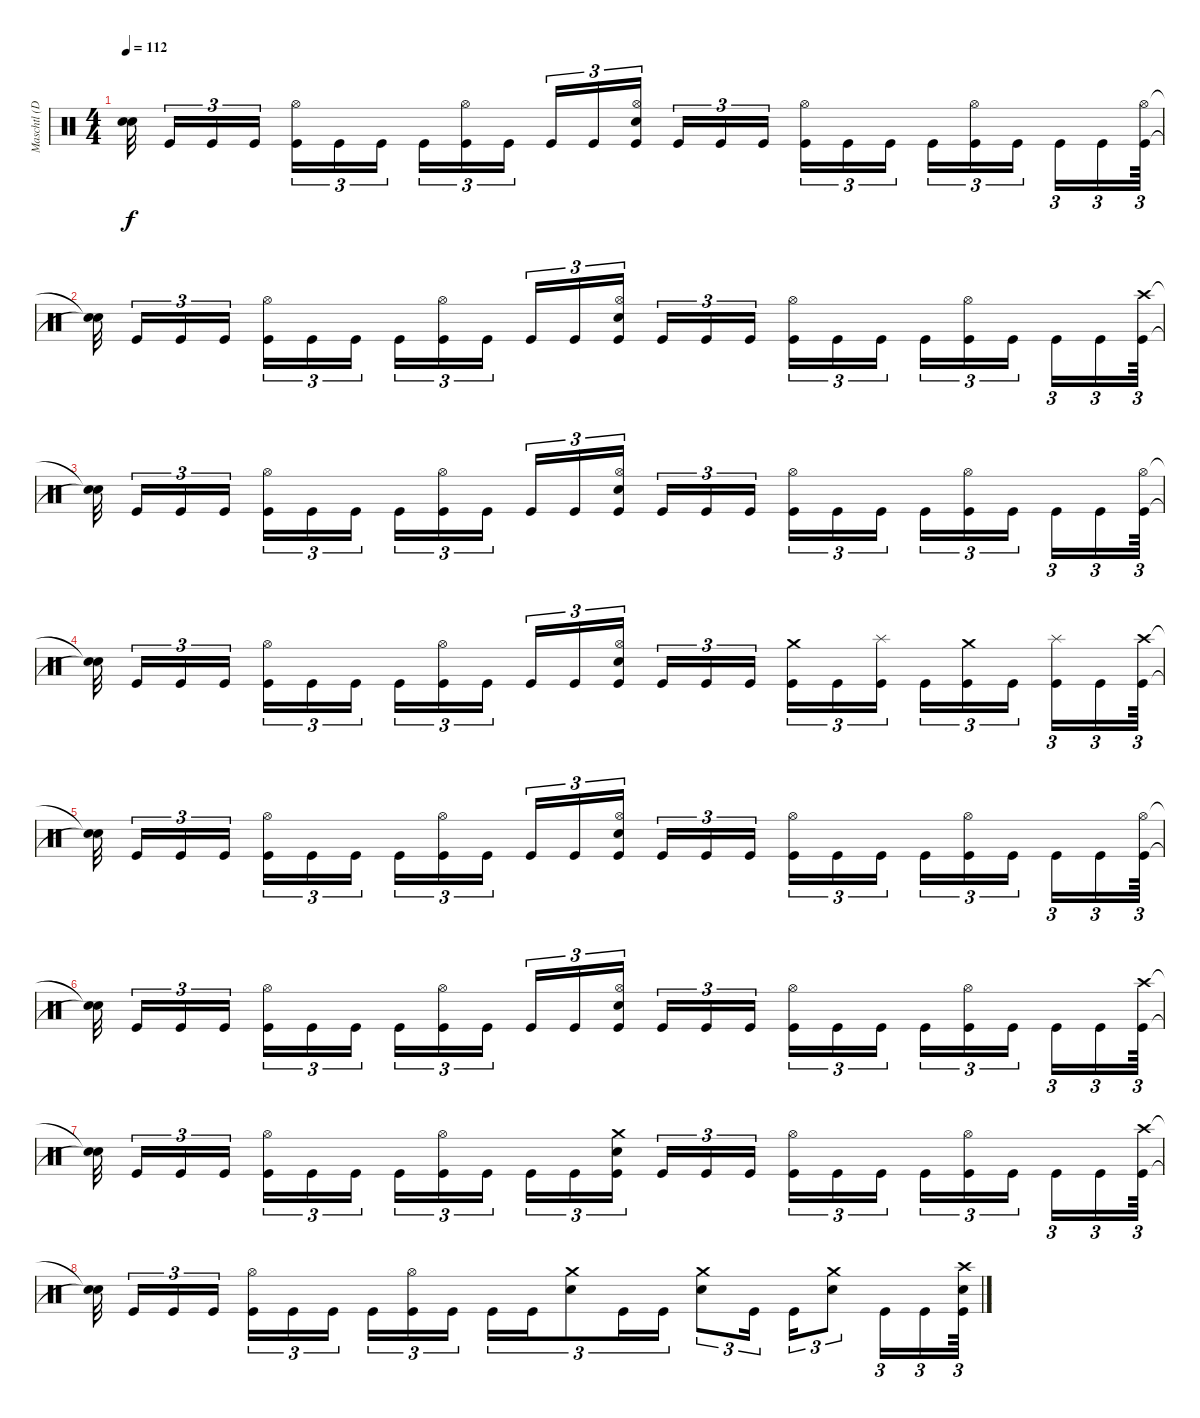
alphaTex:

\track ("Maschtl (Drums)" "Maschtl (D") {instrument percussion}
\staff {score}
\articulation defaults
\ts (4 4)
\tempo 112
\clef neutral
\ks c
("Snare (hit)"{t} "Snare (hit)"{t}).32{dy f} "Kick (hit)".16{tu (3 2)} "Kick (hit)".16{tu (3 2)} "Kick (hit)".16{tu (3 2)} ("Hi-Hat (open)" "Kick (hit)").16{tu (3 2)} "Kick (hit)".16{tu (3 2)} "Kick (hit)".16{tu (3 2)} "Kick (hit)".16{tu (3 2)} ("Hi-Hat (open)" "Kick (hit)").16{tu (3 2)} "Kick (hit)".16{tu (3 2)} "Kick (hit)".16{tu (3 2)} "Kick (hit)".16{tu (3 2)} ("Hi-Hat (open)" "Electric Snare (hit)" "Kick (hit)").16{tu (3 2)} "Kick (hit)".16{tu (3 2)} "Kick (hit)".16{tu (3 2)} "Kick (hit)".16{tu (3 2)} ("Hi-Hat (open)" "Kick (hit)").16{tu (3 2)} "Kick (hit)".16{tu (3 2)} "Kick (hit)".16{tu (3 2)} "Kick (hit)".16{tu (3 2)} ("Hi-Hat (open)" "Kick (hit)").16{tu (3 2)} "Kick (hit)".16{tu (3 2)} "Kick (hit)".16{tu (3 2)} "Kick (hit)".16{tu (3 2)} ("Hi-Hat (open)" "Kick (hit)").64{tu (3 2)} |
("Snare (hit)"{t} "Snare (hit)"{t}).32 "Kick (hit)".16{tu (3 2)} "Kick (hit)".16{tu (3 2)} "Kick (hit)".16{tu (3 2)} ("Hi-Hat (open)" "Kick (hit)").16{tu (3 2)} "Kick (hit)".16{tu (3 2)} "Kick (hit)".16{tu (3 2)} "Kick (hit)".16{tu (3 2)} ("Hi-Hat (open)" "Kick (hit)").16{tu (3 2)} "Kick (hit)".16{tu (3 2)} "Kick (hit)".16{tu (3 2)} "Kick (hit)".16{tu (3 2)} ("Hi-Hat (open)" "Electric Snare (hit)" "Kick (hit)").16{tu (3 2)} "Kick (hit)".16{tu (3 2)} "Kick (hit)".16{tu (3 2)} "Kick (hit)".16{tu (3 2)} ("Hi-Hat (open)" "Kick (hit)").16{tu (3 2)} "Kick (hit)".16{tu (3 2)} "Kick (hit)".16{tu (3 2)} "Kick (hit)".16{tu (3 2)} ("Hi-Hat (open)" "Kick (hit)").16{tu (3 2)} "Kick (hit)".16{tu (3 2)} "Kick (hit)".16{tu (3 2)} "Kick (hit)".16{tu (3 2)} ("Crash high (hit)" "Kick (hit)").64{tu (3 2)} |
("Snare (hit)"{t} "Snare (hit)"{t}).32 "Kick (hit)".16{tu (3 2)} "Kick (hit)".16{tu (3 2)} "Kick (hit)".16{tu (3 2)} ("Hi-Hat (open)" "Kick (hit)").16{tu (3 2)} "Kick (hit)".16{tu (3 2)} "Kick (hit)".16{tu (3 2)} "Kick (hit)".16{tu (3 2)} ("Hi-Hat (open)" "Kick (hit)").16{tu (3 2)} "Kick (hit)".16{tu (3 2)} "Kick (hit)".16{tu (3 2)} "Kick (hit)".16{tu (3 2)} ("Hi-Hat (open)" "Electric Snare (hit)" "Kick (hit)").16{tu (3 2)} "Kick (hit)".16{tu (3 2)} "Kick (hit)".16{tu (3 2)} "Kick (hit)".16{tu (3 2)} ("Hi-Hat (open)" "Kick (hit)").16{tu (3 2)} "Kick (hit)".16{tu (3 2)} "Kick (hit)".16{tu (3 2)} "Kick (hit)".16{tu (3 2)} ("Hi-Hat (open)" "Kick (hit)").16{tu (3 2)} "Kick (hit)".16{tu (3 2)} "Kick (hit)".16{tu (3 2)} "Kick (hit)".16{tu (3 2)} ("Hi-Hat (open)" "Kick (hit)").64{tu (3 2)} |
("Snare (hit)"{t} "Snare (hit)"{t}).32 "Kick (hit)".16{tu (3 2)} "Kick (hit)".16{tu (3 2)} "Kick (hit)".16{tu (3 2)} ("Hi-Hat (open)" "Kick (hit)").16{tu (3 2)} "Kick (hit)".16{tu (3 2)} "Kick (hit)".16{tu (3 2)} "Kick (hit)".16{tu (3 2)} ("Hi-Hat (open)" "Kick (hit)").16{tu (3 2)} "Kick (hit)".16{tu (3 2)} "Kick (hit)".16{tu (3 2)} "Kick (hit)".16{tu (3 2)} ("Hi-Hat (open)" "Electric Snare (hit)" "Kick (hit)").16{tu (3 2)} "Kick (hit)".16{tu (3 2)} "Kick (hit)".16{tu (3 2)} "Kick (hit)".16{tu (3 2)} ("Crash medium (hit)" "Kick (hit)").16{tu (3 2)} "Kick (hit)".16{tu (3 2)} ("Splash (hit)" "Kick (hit)").16{tu (3 2)} "Kick (hit)".16{tu (3 2)} ("Crash medium (hit)" "Kick (hit)").16{tu (3 2)} "Kick (hit)".16{tu (3 2)} ("Splash (hit)" "Kick (hit)").16{tu (3 2)} "Kick (hit)".16{tu (3 2)} ("Crash high (hit)" "Kick (hit)").64{tu (3 2)} |
("Snare (hit)"{t} "Snare (hit)"{t}).32 "Kick (hit)".16{tu (3 2)} "Kick (hit)".16{tu (3 2)} "Kick (hit)".16{tu (3 2)} ("Hi-Hat (open)" "Kick (hit)").16{tu (3 2)} "Kick (hit)".16{tu (3 2)} "Kick (hit)".16{tu (3 2)} "Kick (hit)".16{tu (3 2)} ("Hi-Hat (open)" "Kick (hit)").16{tu (3 2)} "Kick (hit)".16{tu (3 2)} "Kick (hit)".16{tu (3 2)} "Kick (hit)".16{tu (3 2)} ("Hi-Hat (open)" "Electric Snare (hit)" "Kick (hit)").16{tu (3 2)} "Kick (hit)".16{tu (3 2)} "Kick (hit)".16{tu (3 2)} "Kick (hit)".16{tu (3 2)} ("Hi-Hat (open)" "Kick (hit)").16{tu (3 2)} "Kick (hit)".16{tu (3 2)} "Kick (hit)".16{tu (3 2)} "Kick (hit)".16{tu (3 2)} ("Hi-Hat (open)" "Kick (hit)").16{tu (3 2)} "Kick (hit)".16{tu (3 2)} "Kick (hit)".16{tu (3 2)} "Kick (hit)".16{tu (3 2)} ("Hi-Hat (open)" "Kick (hit)").64{tu (3 2)} |
("Snare (hit)"{t} "Snare (hit)"{t}).32 "Kick (hit)".16{tu (3 2)} "Kick (hit)".16{tu (3 2)} "Kick (hit)".16{tu (3 2)} ("Hi-Hat (open)" "Kick (hit)").16{tu (3 2)} "Kick (hit)".16{tu (3 2)} "Kick (hit)".16{tu (3 2)} "Kick (hit)".16{tu (3 2)} ("Hi-Hat (open)" "Kick (hit)").16{tu (3 2)} "Kick (hit)".16{tu (3 2)} "Kick (hit)".16{tu (3 2)} "Kick (hit)".16{tu (3 2)} ("Hi-Hat (open)" "Electric Snare (hit)" "Kick (hit)").16{tu (3 2)} "Kick (hit)".16{tu (3 2)} "Kick (hit)".16{tu (3 2)} "Kick (hit)".16{tu (3 2)} ("Hi-Hat (open)" "Kick (hit)").16{tu (3 2)} "Kick (hit)".16{tu (3 2)} "Kick (hit)".16{tu (3 2)} "Kick (hit)".16{tu (3 2)} ("Hi-Hat (open)" "Kick (hit)").16{tu (3 2)} "Kick (hit)".16{tu (3 2)} "Kick (hit)".16{tu (3 2)} "Kick (hit)".16{tu (3 2)} ("Crash high (hit)" "Kick (hit)").64{tu (3 2)} |
("Snare (hit)"{t} "Snare (hit)"{t}).32 "Kick (hit)".16{tu (3 2)} "Kick (hit)".16{tu (3 2)} "Kick (hit)".16{tu (3 2)} ("Hi-Hat (open)" "Kick (hit)").16{tu (3 2)} "Kick (hit)".16{tu (3 2)} "Kick (hit)".16{tu (3 2)} "Kick (hit)".16{tu (3 2)} ("Hi-Hat (open)" "Kick (hit)").16{tu (3 2)} "Kick (hit)".16{tu (3 2)} "Kick (hit)".16{tu (3 2)} "Kick (hit)".16{tu (3 2)} ("Crash medium (hit)" "Electric Snare (hit)" "Kick (hit)").16{tu (3 2)} "Kick (hit)".16{tu (3 2)} "Kick (hit)".16{tu (3 2)} "Kick (hit)".16{tu (3 2)} ("Hi-Hat (open)" "Kick (hit)").16{tu (3 2)} "Kick (hit)".16{tu (3 2)} "Kick (hit)".16{tu (3 2)} "Kick (hit)".16{tu (3 2)} ("Hi-Hat (open)" "Kick (hit)").16{tu (3 2)} "Kick (hit)".16{tu (3 2)} "Kick (hit)".16{tu (3 2)} "Kick (hit)".16{tu (3 2)} ("Crash high (hit)" "Kick (hit)").64{tu (3 2)} |
("Snare (hit)"{t} "Snare (hit)"{t}).32 "Kick (hit)".16{tu (3 2)} "Kick (hit)".16{tu (3 2)} "Kick (hit)".16{tu (3 2)} ("Hi-Hat (open)" "Kick (hit)").16{tu (3 2)} "Kick (hit)".16{tu (3 2)} "Kick (hit)".16{tu (3 2)} "Kick (hit)".16{tu (3 2)} ("Hi-Hat (open)" "Kick (hit)").16{tu (3 2)} "Kick (hit)".16{tu (3 2)} "Kick (hit)".16{tu (3 2)} "Kick (hit)".16{tu (3 2)} ("Crash medium (hit)" "Electric Snare (hit)").8{tu (3 2)} "Kick (hit)".16{tu (3 2)} "Kick (hit)".16{tu (3 2)} ("Crash medium (hit)" "Electric Snare (hit)").8{tu (3 2)} "Kick (hit)".16{tu (3 2)} "Kick (hit)".16{tu (3 2)} ("Crash medium (hit)" "Electric Snare (hit)").8{tu (3 2)} "Kick (hit)".16{tu (3 2)} "Kick (hit)".16{tu (3 2)} ("Crash high (hit)" "Electric Snare (hit)" "Kick (hit)").64{tu (3 2)}
